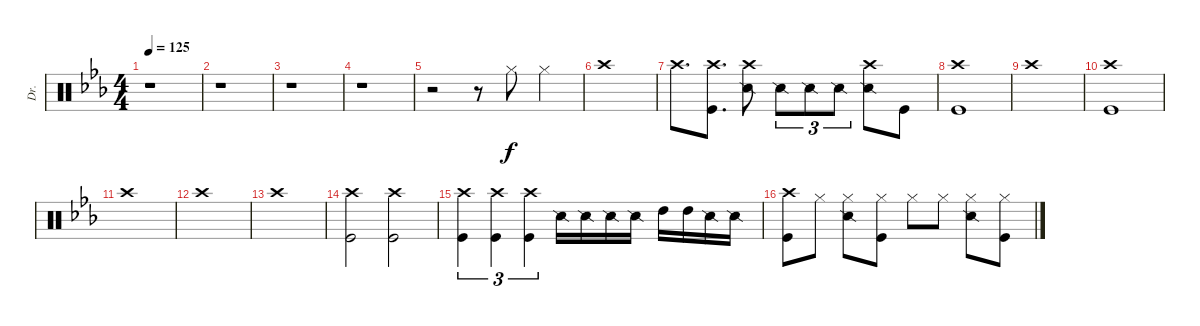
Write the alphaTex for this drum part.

\track ("Dr." "Dr.") {instrument percussion}
\staff {score}
\articulation defaults
\ts (4 4)
\tempo 125
\clef neutral
\ks eb
r.1{dy f} |
r.1 |
r.1 |
r.1 |
r.2 r.8 "Hi-Hat (closed)".8 "Hi-Hat (closed)".4 |
"Crash high (hit)".1 |
"Crash high (hit)".8{d} ("Crash high (hit)" "Kick (hit)").8{d} ("Crash high (hit)" "Snare (side stick) 2").8{beam split} "Snare (side stick) 2".8{tu (3 2)} "Snare (side stick) 2".8{tu (3 2) beam merge} "Snare (side stick) 2".8{tu (3 2)} ("Crash high (hit)" "Snare (side stick) 2").8 "Kick (hit)".8 |
("Crash high (hit)" "Kick (hit)").1 |
"Crash high (hit)".1 |
("Crash high (hit)" "Kick (hit)").1 |
"Crash high (hit)".1 |
"Crash high (hit)".1 |
"Crash high (hit)".1 |
("Crash high (hit)" "Kick (hit)").2 ("Crash high (hit)" "Kick (hit)").2 |
("Crash high (hit)" "Kick (hit)").4{tu (3 2)} ("Crash high (hit)" "Kick (hit)").4{tu (3 2)} ("Crash high (hit)" "Kick (hit)").4{tu (3 2)} "Snare (side stick) 2".16 "Snare (side stick) 2".16 "Snare (side stick) 2".16 "Snare (side stick) 2".16 "High Tom (hit)".16 "High Tom (hit)".16 "Snare (side stick) 2".16 "Snare (side stick) 2".16 |
("Crash high (hit)" "Kick (hit)").8 "Hi-Hat (closed)".8 ("Hi-Hat (closed)" "Snare (side stick) 2").8 ("Hi-Hat (closed)" "Kick (hit)").8 "Hi-Hat (closed)".8 "Hi-Hat (closed)".8 ("Hi-Hat (closed)" "Snare (side stick) 2").8 ("Hi-Hat (closed)" "Kick (hit)").8
